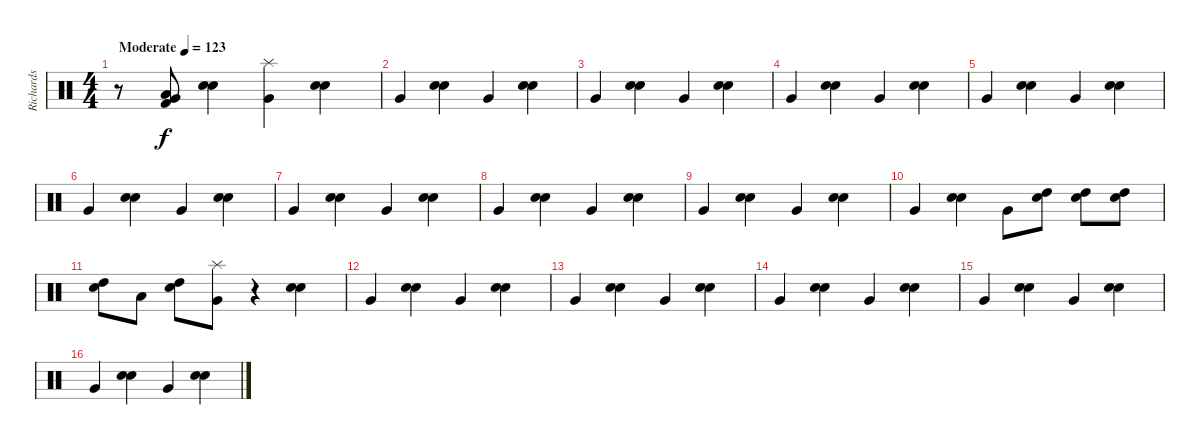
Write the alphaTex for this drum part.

\track ("Richards" "Richards") {instrument percussion}
\staff {score}
\articulation defaults
\ts (4 4)
\tempo (123 "Moderate")
\clef neutral
\ks c
r.8{dy f} ("Very Low Tom (hit)" "Low Floor Tom (hit)" "Kick (hit) 2").8 ("Snare (hit) 2" "Electric Snare (hit)").4 ("Splash (hit)" "Very Low Tom (hit)").4 ("Snare (hit) 2" "Electric Snare (hit)").4 |
"Very Low Tom (hit)".4 ("Snare (hit) 2" "Electric Snare (hit)").4 "Very Low Tom (hit)".4 ("Snare (hit) 2" "Electric Snare (hit)").4 |
"Very Low Tom (hit)".4 ("Snare (hit) 2" "Electric Snare (hit)").4 "Very Low Tom (hit)".4 ("Snare (hit) 2" "Electric Snare (hit)").4 |
"Very Low Tom (hit)".4 ("Snare (hit) 2" "Electric Snare (hit)").4 "Very Low Tom (hit)".4 ("Snare (hit) 2" "Electric Snare (hit)").4 |
"Very Low Tom (hit)".4 ("Snare (hit) 2" "Electric Snare (hit)").4 "Very Low Tom (hit)".4 ("Snare (hit) 2" "Electric Snare (hit)").4 |
"Very Low Tom (hit)".4 ("Snare (hit) 2" "Electric Snare (hit)").4 "Very Low Tom (hit)".4 ("Snare (hit) 2" "Electric Snare (hit)").4 |
"Very Low Tom (hit)".4 ("Snare (hit) 2" "Electric Snare (hit)").4 "Very Low Tom (hit)".4 ("Snare (hit) 2" "Electric Snare (hit)").4 |
"Very Low Tom (hit)".4 ("Snare (hit) 2" "Electric Snare (hit)").4 "Very Low Tom (hit)".4 ("Snare (hit) 2" "Electric Snare (hit)").4 |
"Very Low Tom (hit)".4 ("Snare (hit) 2" "Electric Snare (hit)").4 "Very Low Tom (hit)".4 ("Snare (hit) 2" "Electric Snare (hit)").4 |
"Very Low Tom (hit)".4 ("Snare (hit) 2" "Electric Snare (hit)").4 "Very Low Tom (hit)".8 ("Snare (hit) 2" "High Tom (hit)").8 ("Snare (hit) 2" "High Tom (hit)").8 ("Snare (hit) 2" "High Tom (hit)").8 |
("Snare (hit) 2" "High Tom (hit)").8 "Low Tom (hit)".8 ("Snare (hit) 2" "High Tom (hit)").8 ("Splash (hit)" "Very Low Tom (hit)").8 r.4 ("Snare (hit) 2" "Electric Snare (hit)").4 |
"Very Low Tom (hit)".4 ("Snare (hit) 2" "Electric Snare (hit)").4 "Very Low Tom (hit)".4 ("Snare (hit) 2" "Electric Snare (hit)").4 |
"Very Low Tom (hit)".4 ("Snare (hit) 2" "Electric Snare (hit)").4 "Very Low Tom (hit)".4 ("Snare (hit) 2" "Electric Snare (hit)").4 |
"Very Low Tom (hit)".4 ("Snare (hit) 2" "Electric Snare (hit)").4 "Very Low Tom (hit)".4 ("Snare (hit) 2" "Electric Snare (hit)").4 |
"Very Low Tom (hit)".4 ("Snare (hit) 2" "Electric Snare (hit)").4 "Very Low Tom (hit)".4 ("Snare (hit) 2" "Electric Snare (hit)").4 |
"Very Low Tom (hit)".4 ("Snare (hit) 2" "Electric Snare (hit)").4 "Very Low Tom (hit)".4 ("Snare (hit) 2" "Electric Snare (hit)").4
